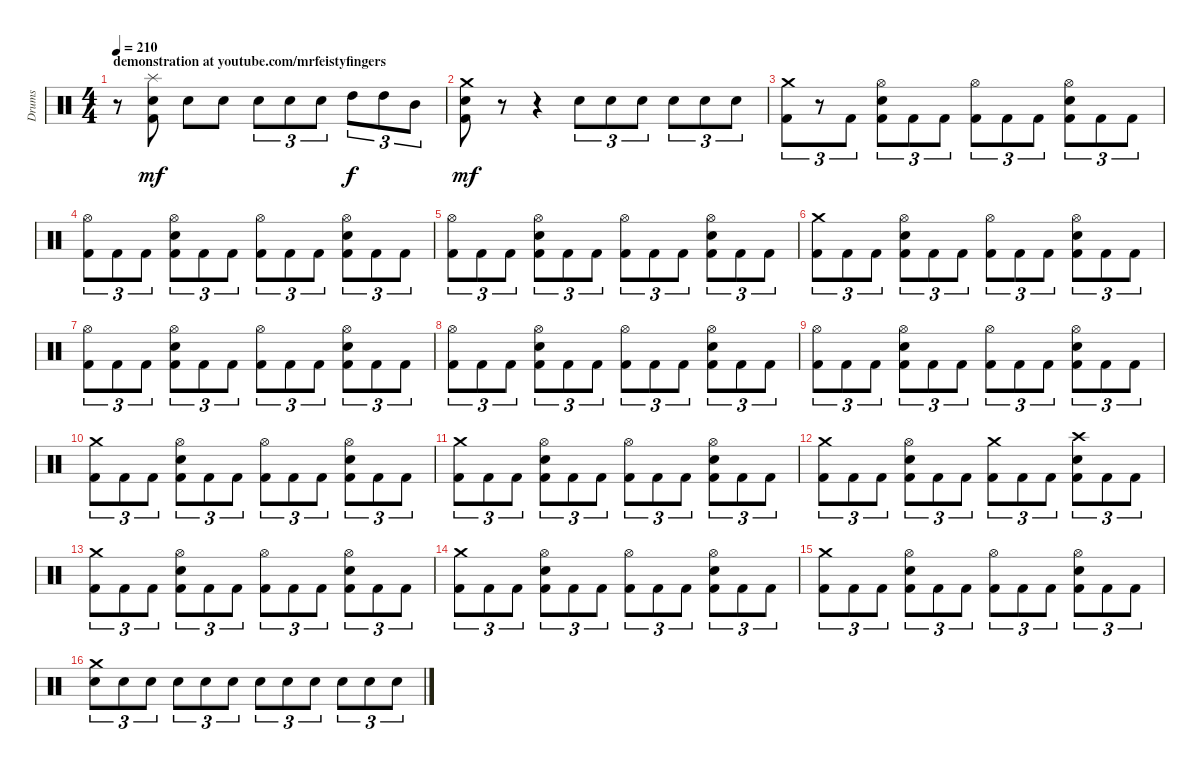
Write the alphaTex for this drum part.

\track ("Drums" "Drums") {instrument percussion}
\staff {score}
\articulation defaults
\ts (4 4)
\section ("" "demonstration at youtube.com/mrfeistyfingers")
\tempo 210
\clef neutral
\ks c
r.8{dy mf} ("Splash (hit)" "Electric Snare (hit)" "Kick (hit) 2").8 "Electric Snare (hit)".8 "Electric Snare (hit)".8 "Electric Snare (hit)".8{tu (3 2)} "Electric Snare (hit)".8{tu (3 2)} "Electric Snare (hit)".8{tu (3 2)} "High Tom (hit)".8{tu (3 2) dy f} "High Tom (hit)".8{tu (3 2)} "Mid Tom (hit)".8{tu (3 2)} |
("Crash medium (hit)" "Electric Snare (hit)" "Kick (hit) 2").8{dy mf} r.8 r.4 "Electric Snare (hit)".8{tu (3 2)} "Electric Snare (hit)".8{tu (3 2)} "Electric Snare (hit)".8{tu (3 2)} "Electric Snare (hit)".8{tu (3 2)} "Electric Snare (hit)".8{tu (3 2)} "Electric Snare (hit)".8{tu (3 2)} |
("Crash medium (hit)" "Kick (hit) 2").8{tu (3 2)} r.8{tu (3 2)} "Kick (hit) 2".8{tu (3 2)} ("Hi-Hat (open)" "Electric Snare (hit)" "Kick (hit) 2").8{tu (3 2)} "Kick (hit) 2".8{tu (3 2)} "Kick (hit) 2".8{tu (3 2)} ("Hi-Hat (open)" "Kick (hit) 2").8{tu (3 2)} "Kick (hit) 2".8{tu (3 2)} "Kick (hit) 2".8{tu (3 2)} ("Hi-Hat (open)" "Electric Snare (hit)" "Kick (hit) 2").8{tu (3 2)} "Kick (hit) 2".8{tu (3 2)} "Kick (hit) 2".8{tu (3 2)} |
("Hi-Hat (open)" "Kick (hit) 2").8{tu (3 2)} "Kick (hit) 2".8{tu (3 2)} "Kick (hit) 2".8{tu (3 2)} ("Hi-Hat (open)" "Electric Snare (hit)" "Kick (hit) 2").8{tu (3 2)} "Kick (hit) 2".8{tu (3 2)} "Kick (hit) 2".8{tu (3 2)} ("Hi-Hat (open)" "Kick (hit) 2").8{tu (3 2)} "Kick (hit) 2".8{tu (3 2)} "Kick (hit) 2".8{tu (3 2)} ("Hi-Hat (open)" "Electric Snare (hit)" "Kick (hit) 2").8{tu (3 2)} "Kick (hit) 2".8{tu (3 2)} "Kick (hit) 2".8{tu (3 2)} |
("Hi-Hat (open)" "Kick (hit) 2").8{tu (3 2)} "Kick (hit) 2".8{tu (3 2)} "Kick (hit) 2".8{tu (3 2)} ("Hi-Hat (open)" "Electric Snare (hit)" "Kick (hit) 2").8{tu (3 2)} "Kick (hit) 2".8{tu (3 2)} "Kick (hit) 2".8{tu (3 2)} ("Hi-Hat (open)" "Kick (hit) 2").8{tu (3 2)} "Kick (hit) 2".8{tu (3 2)} "Kick (hit) 2".8{tu (3 2)} ("Hi-Hat (open)" "Electric Snare (hit)" "Kick (hit) 2").8{tu (3 2)} "Kick (hit) 2".8{tu (3 2)} "Kick (hit) 2".8{tu (3 2)} |
("Crash medium (hit)" "Kick (hit) 2").8{tu (3 2)} "Kick (hit) 2".8{tu (3 2)} "Kick (hit) 2".8{tu (3 2)} ("Hi-Hat (open)" "Electric Snare (hit)" "Kick (hit) 2").8{tu (3 2)} "Kick (hit) 2".8{tu (3 2)} "Kick (hit) 2".8{tu (3 2)} ("Hi-Hat (open)" "Kick (hit) 2").8{tu (3 2)} "Kick (hit) 2".8{tu (3 2)} "Kick (hit) 2".8{tu (3 2)} ("Hi-Hat (open)" "Electric Snare (hit)" "Kick (hit) 2").8{tu (3 2)} "Kick (hit) 2".8{tu (3 2)} "Kick (hit) 2".8{tu (3 2)} |
("Hi-Hat (open)" "Kick (hit) 2").8{tu (3 2)} "Kick (hit) 2".8{tu (3 2)} "Kick (hit) 2".8{tu (3 2)} ("Hi-Hat (open)" "Electric Snare (hit)" "Kick (hit) 2").8{tu (3 2)} "Kick (hit) 2".8{tu (3 2)} "Kick (hit) 2".8{tu (3 2)} ("Hi-Hat (open)" "Kick (hit) 2").8{tu (3 2)} "Kick (hit) 2".8{tu (3 2)} "Kick (hit) 2".8{tu (3 2)} ("Hi-Hat (open)" "Electric Snare (hit)" "Kick (hit) 2").8{tu (3 2)} "Kick (hit) 2".8{tu (3 2)} "Kick (hit) 2".8{tu (3 2)} |
("Hi-Hat (open)" "Kick (hit) 2").8{tu (3 2)} "Kick (hit) 2".8{tu (3 2)} "Kick (hit) 2".8{tu (3 2)} ("Hi-Hat (open)" "Electric Snare (hit)" "Kick (hit) 2").8{tu (3 2)} "Kick (hit) 2".8{tu (3 2)} "Kick (hit) 2".8{tu (3 2)} ("Hi-Hat (open)" "Kick (hit) 2").8{tu (3 2)} "Kick (hit) 2".8{tu (3 2)} "Kick (hit) 2".8{tu (3 2)} ("Hi-Hat (open)" "Electric Snare (hit)" "Kick (hit) 2").8{tu (3 2)} "Kick (hit) 2".8{tu (3 2)} "Kick (hit) 2".8{tu (3 2)} |
("Hi-Hat (open)" "Kick (hit) 2").8{tu (3 2)} "Kick (hit) 2".8{tu (3 2)} "Kick (hit) 2".8{tu (3 2)} ("Hi-Hat (open)" "Electric Snare (hit)" "Kick (hit) 2").8{tu (3 2)} "Kick (hit) 2".8{tu (3 2)} "Kick (hit) 2".8{tu (3 2)} ("Hi-Hat (open)" "Kick (hit) 2").8{tu (3 2)} "Kick (hit) 2".8{tu (3 2)} "Kick (hit) 2".8{tu (3 2)} ("Hi-Hat (open)" "Electric Snare (hit)" "Kick (hit) 2").8{tu (3 2)} "Kick (hit) 2".8{tu (3 2)} "Kick (hit) 2".8{tu (3 2)} |
("Crash medium (hit)" "Kick (hit) 2").8{tu (3 2)} "Kick (hit) 2".8{tu (3 2)} "Kick (hit) 2".8{tu (3 2)} ("Hi-Hat (open)" "Electric Snare (hit)" "Kick (hit) 2").8{tu (3 2)} "Kick (hit) 2".8{tu (3 2)} "Kick (hit) 2".8{tu (3 2)} ("Hi-Hat (open)" "Kick (hit) 2").8{tu (3 2)} "Kick (hit) 2".8{tu (3 2)} "Kick (hit) 2".8{tu (3 2)} ("Hi-Hat (open)" "Electric Snare (hit)" "Kick (hit) 2").8{tu (3 2)} "Kick (hit) 2".8{tu (3 2)} "Kick (hit) 2".8{tu (3 2)} |
("Crash medium (hit)" "Kick (hit) 2").8{tu (3 2)} "Kick (hit) 2".8{tu (3 2)} "Kick (hit) 2".8{tu (3 2)} ("Hi-Hat (open)" "Electric Snare (hit)" "Kick (hit) 2").8{tu (3 2)} "Kick (hit) 2".8{tu (3 2)} "Kick (hit) 2".8{tu (3 2)} ("Hi-Hat (open)" "Kick (hit) 2").8{tu (3 2)} "Kick (hit) 2".8{tu (3 2)} "Kick (hit) 2".8{tu (3 2)} ("Hi-Hat (open)" "Electric Snare (hit)" "Kick (hit) 2").8{tu (3 2)} "Kick (hit) 2".8{tu (3 2)} "Kick (hit) 2".8{tu (3 2)} |
("Crash medium (hit)" "Kick (hit) 2").8{tu (3 2)} "Kick (hit) 2".8{tu (3 2)} "Kick (hit) 2".8{tu (3 2)} ("Hi-Hat (open)" "Electric Snare (hit)" "Kick (hit) 2").8{tu (3 2)} "Kick (hit) 2".8{tu (3 2)} "Kick (hit) 2".8{tu (3 2)} ("Crash medium (hit)" "Kick (hit) 2").8{tu (3 2)} "Kick (hit) 2".8{tu (3 2)} "Kick (hit) 2".8{tu (3 2)} ("Crash high (hit)" "Electric Snare (hit)" "Kick (hit) 2").8{tu (3 2)} "Kick (hit) 2".8{tu (3 2)} "Kick (hit) 2".8{tu (3 2)} |
("Crash medium (hit)" "Kick (hit) 2").8{tu (3 2)} "Kick (hit) 2".8{tu (3 2)} "Kick (hit) 2".8{tu (3 2)} ("Hi-Hat (open)" "Electric Snare (hit)" "Kick (hit) 2").8{tu (3 2)} "Kick (hit) 2".8{tu (3 2)} "Kick (hit) 2".8{tu (3 2)} ("Hi-Hat (open)" "Kick (hit) 2").8{tu (3 2)} "Kick (hit) 2".8{tu (3 2)} "Kick (hit) 2".8{tu (3 2)} ("Hi-Hat (open)" "Electric Snare (hit)" "Kick (hit) 2").8{tu (3 2)} "Kick (hit) 2".8{tu (3 2)} "Kick (hit) 2".8{tu (3 2)} |
("Crash medium (hit)" "Kick (hit) 2").8{tu (3 2)} "Kick (hit) 2".8{tu (3 2)} "Kick (hit) 2".8{tu (3 2)} ("Hi-Hat (open)" "Electric Snare (hit)" "Kick (hit) 2").8{tu (3 2)} "Kick (hit) 2".8{tu (3 2)} "Kick (hit) 2".8{tu (3 2)} ("Hi-Hat (open)" "Kick (hit) 2").8{tu (3 2)} "Kick (hit) 2".8{tu (3 2)} "Kick (hit) 2".8{tu (3 2)} ("Hi-Hat (open)" "Electric Snare (hit)" "Kick (hit) 2").8{tu (3 2)} "Kick (hit) 2".8{tu (3 2)} "Kick (hit) 2".8{tu (3 2)} |
("Crash medium (hit)" "Kick (hit) 2").8{tu (3 2)} "Kick (hit) 2".8{tu (3 2)} "Kick (hit) 2".8{tu (3 2)} ("Hi-Hat (open)" "Electric Snare (hit)" "Kick (hit) 2").8{tu (3 2)} "Kick (hit) 2".8{tu (3 2)} "Kick (hit) 2".8{tu (3 2)} ("Hi-Hat (open)" "Kick (hit) 2").8{tu (3 2)} "Kick (hit) 2".8{tu (3 2)} "Kick (hit) 2".8{tu (3 2)} ("Hi-Hat (open)" "Electric Snare (hit)" "Kick (hit) 2").8{tu (3 2)} "Kick (hit) 2".8{tu (3 2)} "Kick (hit) 2".8{tu (3 2)} |
("Crash medium (hit)" "Electric Snare (hit)").8{tu (3 2)} "Electric Snare (hit)".8{tu (3 2)} "Electric Snare (hit)".8{tu (3 2)} "Electric Snare (hit)".8{tu (3 2)} "Electric Snare (hit)".8{tu (3 2)} "Electric Snare (hit)".8{tu (3 2)} "Electric Snare (hit)".8{tu (3 2)} "Electric Snare (hit)".8{tu (3 2)} "Electric Snare (hit)".8{tu (3 2)} "Electric Snare (hit)".8{tu (3 2)} "Electric Snare (hit)".8{tu (3 2)} "Electric Snare (hit)".8{tu (3 2)}
